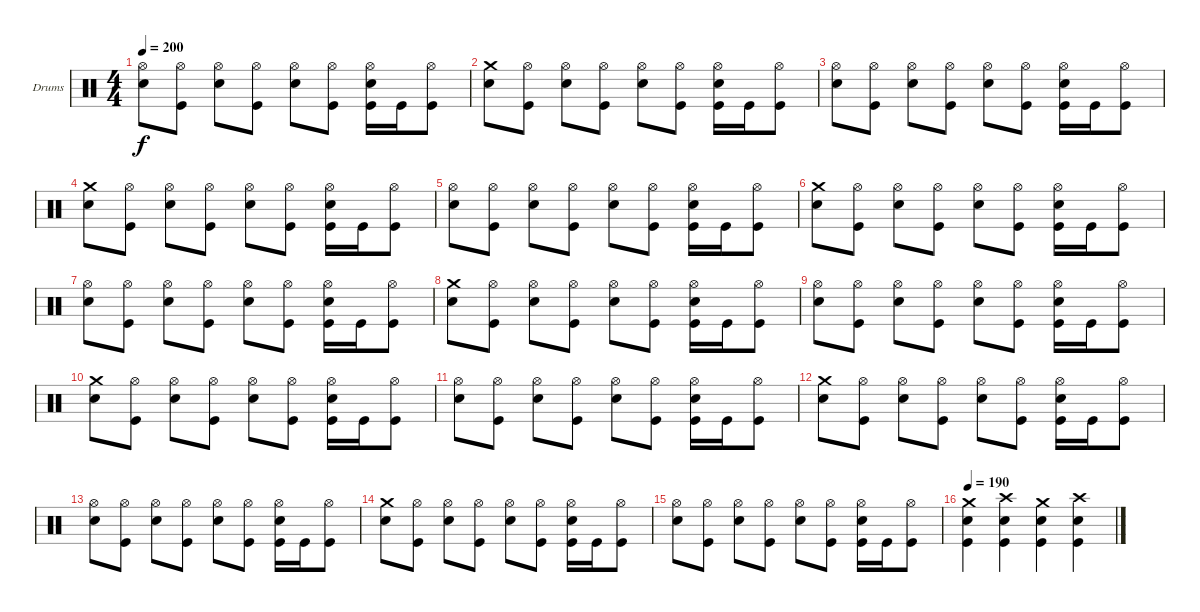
\bracketExtendMode groupsimilarinstruments
\firstSystemTrackNameOrientation horizontal
\otherSystemsTrackNameOrientation horizontal
\track ("Ударные" "Drums") {instrument percussion}
\staff {score}
\articulation defaults
\ts (4 4)
\tempo 200
\clef neutral
\ks c
("Hi-Hat (open)" "Snare (hit) 2").8{dy f} ("Hi-Hat (open)" "Kick (hit)").8 ("Hi-Hat (open)" "Snare (hit) 2").8 ("Hi-Hat (open)" "Kick (hit)").8 ("Hi-Hat (open)" "Snare (hit) 2").8 ("Hi-Hat (open)" "Kick (hit)").8 ("Hi-Hat (open)" "Snare (hit) 2" "Kick (hit)").16 "Kick (hit)".16 ("Hi-Hat (open)" "Kick (hit)").8 |
("Crash medium (hit)" "Snare (hit) 2").8 ("Hi-Hat (open)" "Kick (hit)").8 ("Hi-Hat (open)" "Snare (hit) 2").8 ("Hi-Hat (open)" "Kick (hit)").8 ("Hi-Hat (open)" "Snare (hit) 2").8 ("Hi-Hat (open)" "Kick (hit)").8 ("Hi-Hat (open)" "Snare (hit) 2" "Kick (hit)").16 "Kick (hit)".16 ("Hi-Hat (open)" "Kick (hit)").8 |
("Hi-Hat (open)" "Snare (hit) 2").8 ("Hi-Hat (open)" "Kick (hit)").8 ("Hi-Hat (open)" "Snare (hit) 2").8 ("Hi-Hat (open)" "Kick (hit)").8 ("Hi-Hat (open)" "Snare (hit) 2").8 ("Hi-Hat (open)" "Kick (hit)").8 ("Hi-Hat (open)" "Snare (hit) 2" "Kick (hit)").16 "Kick (hit)".16 ("Hi-Hat (open)" "Kick (hit)").8 |
("Crash medium (hit)" "Snare (hit) 2").8 ("Hi-Hat (open)" "Kick (hit)").8 ("Hi-Hat (open)" "Snare (hit) 2").8 ("Hi-Hat (open)" "Kick (hit)").8 ("Hi-Hat (open)" "Snare (hit) 2").8 ("Hi-Hat (open)" "Kick (hit)").8 ("Hi-Hat (open)" "Snare (hit) 2" "Kick (hit)").16 "Kick (hit)".16 ("Hi-Hat (open)" "Kick (hit)").8 |
("Hi-Hat (open)" "Snare (hit) 2").8 ("Hi-Hat (open)" "Kick (hit)").8 ("Hi-Hat (open)" "Snare (hit) 2").8 ("Hi-Hat (open)" "Kick (hit)").8 ("Hi-Hat (open)" "Snare (hit) 2").8 ("Hi-Hat (open)" "Kick (hit)").8 ("Hi-Hat (open)" "Snare (hit) 2" "Kick (hit)").16 "Kick (hit)".16 ("Hi-Hat (open)" "Kick (hit)").8 |
("Crash medium (hit)" "Snare (hit) 2").8 ("Hi-Hat (open)" "Kick (hit)").8 ("Hi-Hat (open)" "Snare (hit) 2").8 ("Hi-Hat (open)" "Kick (hit)").8 ("Hi-Hat (open)" "Snare (hit) 2").8 ("Hi-Hat (open)" "Kick (hit)").8 ("Hi-Hat (open)" "Snare (hit) 2" "Kick (hit)").16 "Kick (hit)".16 ("Hi-Hat (open)" "Kick (hit)").8 |
("Hi-Hat (open)" "Snare (hit) 2").8 ("Hi-Hat (open)" "Kick (hit)").8 ("Hi-Hat (open)" "Snare (hit) 2").8 ("Hi-Hat (open)" "Kick (hit)").8 ("Hi-Hat (open)" "Snare (hit) 2").8 ("Hi-Hat (open)" "Kick (hit)").8 ("Hi-Hat (open)" "Snare (hit) 2" "Kick (hit)").16 "Kick (hit)".16 ("Hi-Hat (open)" "Kick (hit)").8 |
("Crash medium (hit)" "Snare (hit) 2").8 ("Hi-Hat (open)" "Kick (hit)").8 ("Hi-Hat (open)" "Snare (hit) 2").8 ("Hi-Hat (open)" "Kick (hit)").8 ("Hi-Hat (open)" "Snare (hit) 2").8 ("Hi-Hat (open)" "Kick (hit)").8 ("Hi-Hat (open)" "Snare (hit) 2" "Kick (hit)").16 "Kick (hit)".16 ("Hi-Hat (open)" "Kick (hit)").8 |
("Hi-Hat (open)" "Snare (hit) 2").8 ("Hi-Hat (open)" "Kick (hit)").8 ("Hi-Hat (open)" "Snare (hit) 2").8 ("Hi-Hat (open)" "Kick (hit)").8 ("Hi-Hat (open)" "Snare (hit) 2").8 ("Hi-Hat (open)" "Kick (hit)").8 ("Hi-Hat (open)" "Snare (hit) 2" "Kick (hit)").16 "Kick (hit)".16 ("Hi-Hat (open)" "Kick (hit)").8 |
("Crash medium (hit)" "Snare (hit) 2").8 ("Hi-Hat (open)" "Kick (hit)").8 ("Hi-Hat (open)" "Snare (hit) 2").8 ("Hi-Hat (open)" "Kick (hit)").8 ("Hi-Hat (open)" "Snare (hit) 2").8 ("Hi-Hat (open)" "Kick (hit)").8 ("Hi-Hat (open)" "Snare (hit) 2" "Kick (hit)").16 "Kick (hit)".16 ("Hi-Hat (open)" "Kick (hit)").8 |
("Hi-Hat (open)" "Snare (hit) 2").8 ("Hi-Hat (open)" "Kick (hit)").8 ("Hi-Hat (open)" "Snare (hit) 2").8 ("Hi-Hat (open)" "Kick (hit)").8 ("Hi-Hat (open)" "Snare (hit) 2").8 ("Hi-Hat (open)" "Kick (hit)").8 ("Hi-Hat (open)" "Snare (hit) 2" "Kick (hit)").16 "Kick (hit)".16 ("Hi-Hat (open)" "Kick (hit)").8 |
("Crash medium (hit)" "Snare (hit) 2").8 ("Hi-Hat (open)" "Kick (hit)").8 ("Hi-Hat (open)" "Snare (hit) 2").8 ("Hi-Hat (open)" "Kick (hit)").8 ("Hi-Hat (open)" "Snare (hit) 2").8 ("Hi-Hat (open)" "Kick (hit)").8 ("Hi-Hat (open)" "Snare (hit) 2" "Kick (hit)").16 "Kick (hit)".16 ("Hi-Hat (open)" "Kick (hit)").8 |
("Hi-Hat (open)" "Snare (hit) 2").8 ("Hi-Hat (open)" "Kick (hit)").8 ("Hi-Hat (open)" "Snare (hit) 2").8 ("Hi-Hat (open)" "Kick (hit)").8 ("Hi-Hat (open)" "Snare (hit) 2").8 ("Hi-Hat (open)" "Kick (hit)").8 ("Hi-Hat (open)" "Snare (hit) 2" "Kick (hit)").16 "Kick (hit)".16 ("Hi-Hat (open)" "Kick (hit)").8 |
("Crash medium (hit)" "Snare (hit) 2").8 ("Hi-Hat (open)" "Kick (hit)").8 ("Hi-Hat (open)" "Snare (hit) 2").8 ("Hi-Hat (open)" "Kick (hit)").8 ("Hi-Hat (open)" "Snare (hit) 2").8 ("Hi-Hat (open)" "Kick (hit)").8 ("Hi-Hat (open)" "Snare (hit) 2" "Kick (hit)").16 "Kick (hit)".16 ("Hi-Hat (open)" "Kick (hit)").8 |
("Hi-Hat (open)" "Snare (hit) 2").8 ("Hi-Hat (open)" "Kick (hit)").8 ("Hi-Hat (open)" "Snare (hit) 2").8 ("Hi-Hat (open)" "Kick (hit)").8 ("Hi-Hat (open)" "Snare (hit) 2").8 ("Hi-Hat (open)" "Kick (hit)").8 ("Hi-Hat (open)" "Snare (hit) 2" "Kick (hit)").16 "Kick (hit)".16 ("Hi-Hat (open)" "Kick (hit)").8 |
\tempo 190
("Crash medium (hit)" "Snare (hit) 2" "Kick (hit)").4 ("Crash high (hit)" "Snare (hit) 2" "Kick (hit)").4 ("Crash medium (hit)" "Snare (hit) 2" "Kick (hit)").4 ("Crash high (hit)" "Snare (hit) 2" "Kick (hit)").4
